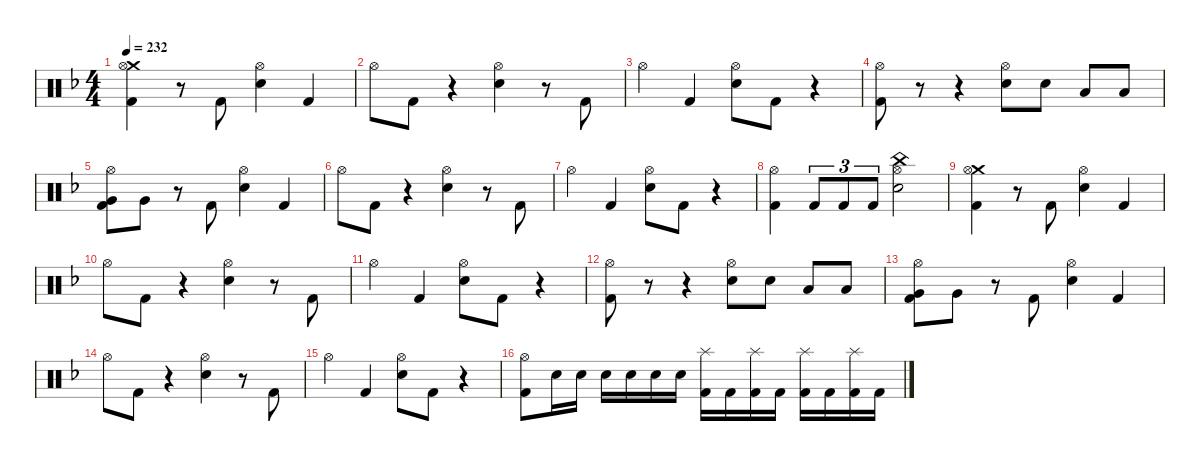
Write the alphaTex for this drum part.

\hideDynamics
\bracketExtendMode nobrackets
\singleTrackTrackNamePolicy hidden
\multiTrackTrackNamePolicy hidden
\firstSystemTrackNameMode fullname
\firstSystemTrackNameOrientation horizontal
\otherSystemsTrackNameOrientation horizontal
\track ("Drumkit" "Drums") {defaultSystemsLayout 4 instrument percussion}
\staff {score}
\articulation defaults
\ts (4 4)
\tempo 232
\clef neutral
\ks dminor
("Crash medium (hit)"{acc forcenatural} "Hi-Hat (open)"{acc forcenatural} "Kick (hit) 2"{acc forcenatural}).4{dy f beam Down} r.8{beam Down} "Kick (hit) 2"{acc forcenatural}.8{beam Up} ("Hi-Hat (open)"{acc forcenatural} "Snare (hit) 2"{acc forcenatural}).4{beam Down} "Kick (hit) 2"{acc forcenatural}.4{beam Up} |
"Hi-Hat (open)"{acc forcenatural}.8{beam Down} "Kick (hit) 2"{acc forcenatural}.8{beam Down} r.4{beam Down} ("Hi-Hat (open)"{acc forcenatural} "Snare (hit) 2"{acc forcenatural}).4{beam Down} r.8{beam Down} "Kick (hit) 2"{acc forcenatural}.8{beam Up} |
"Hi-Hat (open)"{acc forcenatural}.4{beam Down} "Kick (hit) 2"{acc forcenatural}.4{beam Up} ("Hi-Hat (open)"{acc forcenatural} "Snare (hit) 2"{acc forcenatural}).8{beam Down} "Kick (hit) 2"{acc forcenatural}.8{beam Down} r.4{beam Down} |
("Hi-Hat (open)"{acc forcenatural} "Kick (hit) 2"{acc forcenatural}).8{beam Down} r.8{beam Down} r.4{beam Down} ("Hi-Hat (open)"{acc forcenatural} "Snare (hit) 2"{acc forcenatural}).8{beam Down} "Snare (hit) 2"{acc forcenatural}.8{dy mf beam Down} "Low Tom (hit)"{acc forcenatural}.8{beam Up} "Low Tom (hit)"{acc forcenatural}.8{beam Up} |
("Hi-Hat (open)"{acc forcenatural} "Very Low Tom (hit)"{acc forcenatural} "Kick (hit) 2"{acc forcenatural}).8{dy f beam Down} "Very Low Tom (hit)"{acc forcenatural}.8{dy mf beam Down} r.8{beam Down} "Kick (hit) 2"{acc forcenatural}.8{dy f beam Up} ("Hi-Hat (open)"{acc forcenatural} "Snare (hit) 2"{acc forcenatural}).4{beam Down} "Kick (hit) 2"{acc forcenatural}.4{beam Up} |
"Hi-Hat (open)"{acc forcenatural}.8{beam Down} "Kick (hit) 2"{acc forcenatural}.8{beam Down} r.4{beam Down} ("Hi-Hat (open)"{acc forcenatural} "Snare (hit) 2"{acc forcenatural}).4{beam Down} r.8{beam Down} "Kick (hit) 2"{acc forcenatural}.8{beam Up} |
"Hi-Hat (open)"{acc forcenatural}.4{beam Down} "Kick (hit) 2"{acc forcenatural}.4{beam Up} ("Hi-Hat (open)"{acc forcenatural} "Snare (hit) 2"{acc forcenatural}).8{beam Down} "Kick (hit) 2"{acc forcenatural}.8{beam Down} r.4{beam Down} |
("Hi-Hat (open)"{acc forcenatural} "Kick (hit) 2"{acc forcenatural}).4{beam Down} "Kick (hit) 2"{acc forcenatural}.8{tu (3 2) beam Up} "Kick (hit) 2"{acc forcenatural}.8{tu (3 2) beam Up} "Kick (hit) 2"{acc forcenatural}.8{tu (3 2) beam Up} ("China (hit)"{acc forcenatural} "Hi-Hat (open)"{acc forcenatural} "Snare (hit) 2"{acc forcenatural}).2{beam Down} |
("Crash medium (hit)"{acc forcenatural} "Hi-Hat (open)"{acc forcenatural} "Kick (hit) 2"{acc forcenatural}).4{beam Down} r.8{beam Down} "Kick (hit) 2"{acc forcenatural}.8{beam Up} ("Hi-Hat (open)"{acc forcenatural} "Snare (hit) 2"{acc forcenatural}).4{beam Down} "Kick (hit) 2"{acc forcenatural}.4{beam Up} |
"Hi-Hat (open)"{acc forcenatural}.8{beam Down} "Kick (hit) 2"{acc forcenatural}.8{beam Down} r.4{beam Down} ("Hi-Hat (open)"{acc forcenatural} "Snare (hit) 2"{acc forcenatural}).4{beam Down} r.8{beam Down} "Kick (hit) 2"{acc forcenatural}.8{beam Up} |
"Hi-Hat (open)"{acc forcenatural}.4{beam Down} "Kick (hit) 2"{acc forcenatural}.4{beam Up} ("Hi-Hat (open)"{acc forcenatural} "Snare (hit) 2"{acc forcenatural}).8{beam Down} "Kick (hit) 2"{acc forcenatural}.8{beam Down} r.4{beam Down} |
("Hi-Hat (open)"{acc forcenatural} "Kick (hit) 2"{acc forcenatural}).8{beam Down} r.8{beam Down} r.4{beam Down} ("Hi-Hat (open)"{acc forcenatural} "Snare (hit) 2"{acc forcenatural}).8{beam Down} "Snare (hit) 2"{acc forcenatural}.8{dy mf beam Down} "Low Tom (hit)"{acc forcenatural}.8{beam Up} "Low Tom (hit)"{acc forcenatural}.8{beam Up} |
("Hi-Hat (open)"{acc forcenatural} "Very Low Tom (hit)"{acc forcenatural} "Kick (hit) 2"{acc forcenatural}).8{dy f beam Down} "Very Low Tom (hit)"{acc forcenatural}.8{dy mf beam Down} r.8{beam Down} "Kick (hit) 2"{acc forcenatural}.8{dy f beam Up} ("Hi-Hat (open)"{acc forcenatural} "Snare (hit) 2"{acc forcenatural}).4{beam Down} "Kick (hit) 2"{acc forcenatural}.4{beam Up} |
"Hi-Hat (open)"{acc forcenatural}.8{beam Down} "Kick (hit) 2"{acc forcenatural}.8{beam Down} r.4{beam Down} ("Hi-Hat (open)"{acc forcenatural} "Snare (hit) 2"{acc forcenatural}).4{beam Down} r.8{beam Down} "Kick (hit) 2"{acc forcenatural}.8{beam Up} |
"Hi-Hat (open)"{acc forcenatural}.4{beam Down} "Kick (hit) 2"{acc forcenatural}.4{beam Up} ("Hi-Hat (open)"{acc forcenatural} "Snare (hit) 2"{acc forcenatural}).8{beam Down} "Kick (hit) 2"{acc forcenatural}.8{beam Down} r.4{beam Down} |
("Hi-Hat (open)"{acc forcenatural} "Kick (hit) 2"{acc forcenatural}).8{beam Down} "Snare (hit) 2"{acc forcenatural}.16{dy mf beam Down} "Snare (hit) 2"{acc forcenatural}.16{beam Down} "Snare (hit) 2"{acc forcenatural}.16{beam Down} "Snare (hit) 2"{acc forcenatural}.16{beam Down} "Snare (hit) 2"{acc forcenatural}.16{beam Down} "Snare (hit) 2"{acc forcenatural}.16{beam Down} ("Splash (hit)"{acc forcenatural} "Kick (hit) 2"{acc forcenatural}).16{beam Down} "Kick (hit) 2"{acc forcenatural}.16{dy f beam Down} ("Splash (hit)"{acc forcenatural} "Kick (hit) 2"{acc forcenatural}).16{dy mp beam Down} "Kick (hit) 2"{acc forcenatural}.16{dy f beam Down} ("Splash (hit)"{acc forcenatural} "Kick (hit) 2"{acc forcenatural}).16{dy mf beam Down} "Kick (hit) 2"{acc forcenatural}.16{dy f beam Down} ("Splash (hit)"{acc forcenatural} "Kick (hit) 2"{acc forcenatural}).16{dy mp beam Down} "Kick (hit) 2"{acc forcenatural}.16{dy f beam Down}
